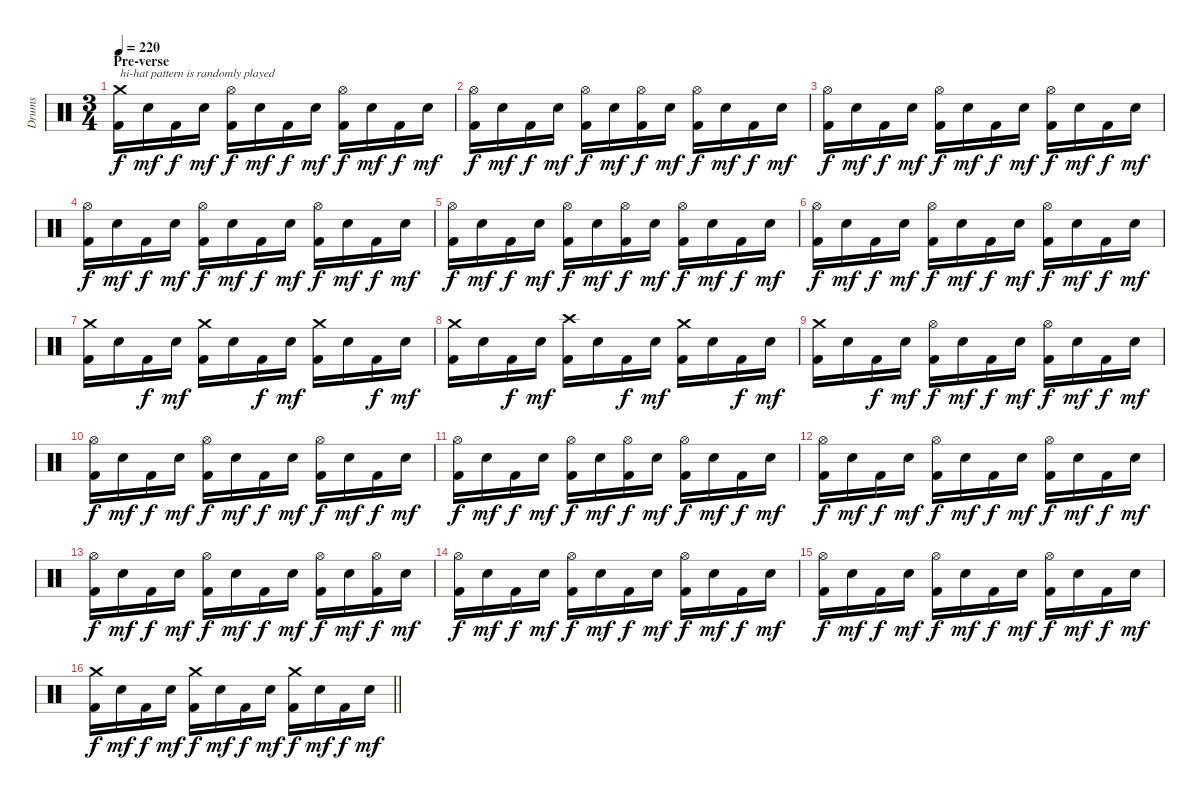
\track ("Drums" "Drums") {instrument percussion}
\staff {score}
\articulation defaults
\ts (3 4)
\section ("" "Pre-verse")
\tempo 220
\clef neutral
\ks c
("Crash medium (hit)" "Kick (hit) 2").16{txt "hi-hat pattern is randomly played" dy f} "Electric Snare (hit)".16{dy mf} "Kick (hit) 2".16{dy f} "Electric Snare (hit)".16{dy mf} ("Hi-Hat (open)" "Kick (hit) 2").16{dy f} "Electric Snare (hit)".16{dy mf} "Kick (hit) 2".16{dy f} "Electric Snare (hit)".16{dy mf} ("Hi-Hat (open)" "Kick (hit) 2").16{dy f} "Electric Snare (hit)".16{dy mf} "Kick (hit) 2".16{dy f} "Electric Snare (hit)".16{dy mf} |
("Hi-Hat (open)" "Kick (hit) 2").16{dy f} "Electric Snare (hit)".16{dy mf} "Kick (hit) 2".16{dy f} "Electric Snare (hit)".16{dy mf} ("Hi-Hat (open)" "Kick (hit) 2").16{dy f} "Electric Snare (hit)".16{dy mf} ("Hi-Hat (open)" "Kick (hit) 2").16{dy f} "Electric Snare (hit)".16{dy mf} ("Hi-Hat (open)" "Kick (hit) 2").16{dy f} "Electric Snare (hit)".16{dy mf} "Kick (hit) 2".16{dy f} "Electric Snare (hit)".16{dy mf} |
("Hi-Hat (open)" "Kick (hit) 2").16{dy f} "Electric Snare (hit)".16{dy mf} "Kick (hit) 2".16{dy f} "Electric Snare (hit)".16{dy mf} ("Hi-Hat (open)" "Kick (hit) 2").16{dy f} "Electric Snare (hit)".16{dy mf} "Kick (hit) 2".16{dy f} "Electric Snare (hit)".16{dy mf} ("Hi-Hat (open)" "Kick (hit) 2").16{dy f} "Electric Snare (hit)".16{dy mf} "Kick (hit) 2".16{dy f} "Electric Snare (hit)".16{dy mf} |
("Hi-Hat (open)" "Kick (hit) 2").16{dy f} "Electric Snare (hit)".16{dy mf} "Kick (hit) 2".16{dy f} "Electric Snare (hit)".16{dy mf} ("Hi-Hat (open)" "Kick (hit) 2").16{dy f} "Electric Snare (hit)".16{dy mf} "Kick (hit) 2".16{dy f} "Electric Snare (hit)".16{dy mf} ("Hi-Hat (open)" "Kick (hit) 2").16{dy f} "Electric Snare (hit)".16{dy mf} "Kick (hit) 2".16{dy f} "Electric Snare (hit)".16{dy mf} |
("Hi-Hat (open)" "Kick (hit) 2").16{dy f} "Electric Snare (hit)".16{dy mf} "Kick (hit) 2".16{dy f} "Electric Snare (hit)".16{dy mf} ("Hi-Hat (open)" "Kick (hit) 2").16{dy f} "Electric Snare (hit)".16{dy mf} ("Hi-Hat (open)" "Kick (hit) 2").16{dy f} "Electric Snare (hit)".16{dy mf} ("Hi-Hat (open)" "Kick (hit) 2").16{dy f} "Electric Snare (hit)".16{dy mf} "Kick (hit) 2".16{dy f} "Electric Snare (hit)".16{dy mf} |
("Hi-Hat (open)" "Kick (hit) 2").16{dy f} "Electric Snare (hit)".16{dy mf} "Kick (hit) 2".16{dy f} "Electric Snare (hit)".16{dy mf} ("Hi-Hat (open)" "Kick (hit) 2").16{dy f} "Electric Snare (hit)".16{dy mf} "Kick (hit) 2".16{dy f} "Electric Snare (hit)".16{dy mf} ("Hi-Hat (open)" "Kick (hit) 2").16{dy f} "Electric Snare (hit)".16{dy mf} "Kick (hit) 2".16{dy f} "Electric Snare (hit)".16{dy mf} |
("Crash medium (hit)" "Kick (hit) 2").16 "Electric Snare (hit)".16 "Kick (hit) 2".16{dy f} "Electric Snare (hit)".16{dy mf} ("Crash medium (hit)" "Kick (hit) 2").16 "Electric Snare (hit)".16 "Kick (hit) 2".16{dy f} "Electric Snare (hit)".16{dy mf} ("Crash medium (hit)" "Kick (hit) 2").16 "Electric Snare (hit)".16 "Kick (hit) 2".16{dy f} "Electric Snare (hit)".16{dy mf} |
("Crash medium (hit)" "Kick (hit) 2").16 "Electric Snare (hit)".16 "Kick (hit) 2".16{dy f} "Electric Snare (hit)".16{dy mf} ("Crash high (hit)" "Kick (hit) 2").16 "Electric Snare (hit)".16 "Kick (hit) 2".16{dy f} "Electric Snare (hit)".16{dy mf} ("Crash medium (hit)" "Kick (hit) 2").16 "Electric Snare (hit)".16 "Kick (hit) 2".16{dy f} "Electric Snare (hit)".16{dy mf} |
("Crash medium (hit)" "Kick (hit) 2").16 "Electric Snare (hit)".16 "Kick (hit) 2".16{dy f} "Electric Snare (hit)".16{dy mf} ("Hi-Hat (open)" "Kick (hit) 2").16{dy f} "Electric Snare (hit)".16{dy mf} "Kick (hit) 2".16{dy f} "Electric Snare (hit)".16{dy mf} ("Hi-Hat (open)" "Kick (hit) 2").16{dy f} "Electric Snare (hit)".16{dy mf} "Kick (hit) 2".16{dy f} "Electric Snare (hit)".16{dy mf} |
("Hi-Hat (open)" "Kick (hit) 2").16{dy f} "Electric Snare (hit)".16{dy mf} "Kick (hit) 2".16{dy f} "Electric Snare (hit)".16{dy mf} ("Hi-Hat (open)" "Kick (hit) 2").16{dy f} "Electric Snare (hit)".16{dy mf} "Kick (hit) 2".16{dy f} "Electric Snare (hit)".16{dy mf} ("Hi-Hat (open)" "Kick (hit) 2").16{dy f} "Electric Snare (hit)".16{dy mf} "Kick (hit) 2".16{dy f} "Electric Snare (hit)".16{dy mf} |
("Hi-Hat (open)" "Kick (hit) 2").16{dy f} "Electric Snare (hit)".16{dy mf} "Kick (hit) 2".16{dy f} "Electric Snare (hit)".16{dy mf} ("Hi-Hat (open)" "Kick (hit) 2").16{dy f} "Electric Snare (hit)".16{dy mf} ("Hi-Hat (open)" "Kick (hit) 2").16{dy f} "Electric Snare (hit)".16{dy mf} ("Hi-Hat (open)" "Kick (hit) 2").16{dy f} "Electric Snare (hit)".16{dy mf} "Kick (hit) 2".16{dy f} "Electric Snare (hit)".16{dy mf} |
("Hi-Hat (open)" "Kick (hit) 2").16{dy f} "Electric Snare (hit)".16{dy mf} "Kick (hit) 2".16{dy f} "Electric Snare (hit)".16{dy mf} ("Hi-Hat (open)" "Kick (hit) 2").16{dy f} "Electric Snare (hit)".16{dy mf} "Kick (hit) 2".16{dy f} "Electric Snare (hit)".16{dy mf} ("Hi-Hat (open)" "Kick (hit) 2").16{dy f} "Electric Snare (hit)".16{dy mf} "Kick (hit) 2".16{dy f} "Electric Snare (hit)".16{dy mf} |
("Hi-Hat (open)" "Kick (hit) 2").16{dy f} "Electric Snare (hit)".16{dy mf} "Kick (hit) 2".16{dy f} "Electric Snare (hit)".16{dy mf} ("Hi-Hat (open)" "Kick (hit) 2").16{dy f} "Electric Snare (hit)".16{dy mf} "Kick (hit) 2".16{dy f} "Electric Snare (hit)".16{dy mf} ("Hi-Hat (open)" "Kick (hit) 2").16{dy f} "Electric Snare (hit)".16{dy mf} ("Hi-Hat (open)" "Kick (hit) 2").16{dy f} "Electric Snare (hit)".16{dy mf} |
("Hi-Hat (open)" "Kick (hit) 2").16{dy f} "Electric Snare (hit)".16{dy mf} "Kick (hit) 2".16{dy f} "Electric Snare (hit)".16{dy mf} ("Hi-Hat (open)" "Kick (hit) 2").16{dy f} "Electric Snare (hit)".16{dy mf} "Kick (hit) 2".16{dy f} "Electric Snare (hit)".16{dy mf} ("Hi-Hat (open)" "Kick (hit) 2").16{dy f} "Electric Snare (hit)".16{dy mf} "Kick (hit) 2".16{dy f} "Electric Snare (hit)".16{dy mf} |
("Hi-Hat (open)" "Kick (hit) 2").16{dy f} "Electric Snare (hit)".16{dy mf} "Kick (hit) 2".16{dy f} "Electric Snare (hit)".16{dy mf} ("Hi-Hat (open)" "Kick (hit) 2").16{dy f} "Electric Snare (hit)".16{dy mf} "Kick (hit) 2".16{dy f} "Electric Snare (hit)".16{dy mf} ("Hi-Hat (open)" "Kick (hit) 2").16{dy f} "Electric Snare (hit)".16{dy mf} "Kick (hit) 2".16{dy f} "Electric Snare (hit)".16{dy mf} |
\barLineRight lightlight
("Crash medium (hit)" "Kick (hit) 2").16{dy f} "Electric Snare (hit)".16{dy mf} "Kick (hit) 2".16{dy f} "Electric Snare (hit)".16{dy mf} ("Crash medium (hit)" "Kick (hit) 2").16{dy f} "Electric Snare (hit)".16{dy mf} "Kick (hit) 2".16{dy f} "Electric Snare (hit)".16{dy mf} ("Crash medium (hit)" "Kick (hit) 2").16{dy f} "Electric Snare (hit)".16{dy mf} "Kick (hit) 2".16{dy f} "Electric Snare (hit)".16{dy mf}
